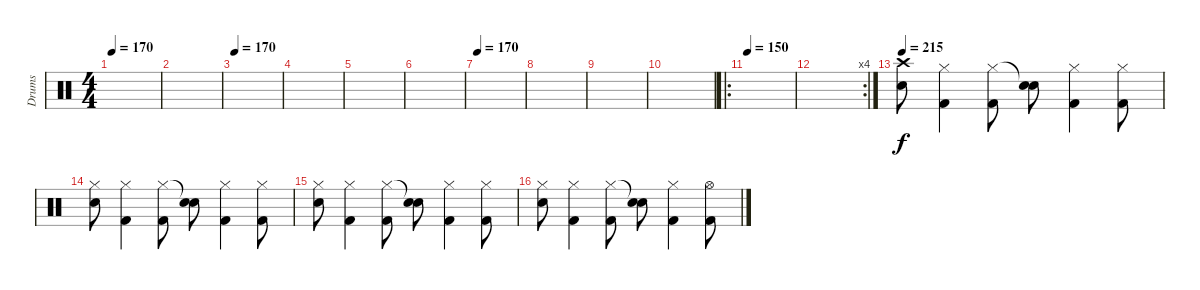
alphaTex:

\track ("Drums" "Drums") {instrument percussion}
\staff {score}
\articulation defaults
\ts (4 4)
\tempo 170
\clef neutral
\ks c
|
|
\tempo 170
|
|
|
|
\tempo 170
|
|
|
|
\ro
\tempo 150
|
\rc 4
|
\tempo 215
("Crash high (hit)" "Electric Snare (hit)").8 ("Hi-Hat (closed)" "Kick (hit) 2").4 ("Hi-Hat (closed)" "Kick (hit) 2").8 ("Snare (hit)"{t} "Electric Snare (hit)").8 ("Hi-Hat (closed)" "Kick (hit) 2").4 ("Hi-Hat (closed)" "Kick (hit) 2").8 |
("Hi-Hat (closed)" "Electric Snare (hit)").8 ("Hi-Hat (closed)" "Kick (hit) 2").4 ("Hi-Hat (closed)" "Kick (hit) 2").8 ("Snare (hit)"{t} "Electric Snare (hit)").8 ("Hi-Hat (closed)" "Kick (hit) 2").4 ("Hi-Hat (closed)" "Kick (hit) 2").8 |
("Hi-Hat (closed)" "Electric Snare (hit)").8 ("Hi-Hat (closed)" "Kick (hit) 2").4 ("Hi-Hat (closed)" "Kick (hit) 2").8 ("Snare (hit)"{t} "Electric Snare (hit)").8 ("Hi-Hat (closed)" "Kick (hit) 2").4 ("Hi-Hat (closed)" "Kick (hit) 2").8 |
("Hi-Hat (closed)" "Electric Snare (hit)").8 ("Hi-Hat (closed)" "Kick (hit) 2").4 ("Hi-Hat (closed)" "Kick (hit) 2").8 ("Snare (hit)"{t} "Electric Snare (hit)").8 ("Hi-Hat (closed)" "Kick (hit) 2").4 ("Hi-Hat (open)" "Kick (hit) 2").8
